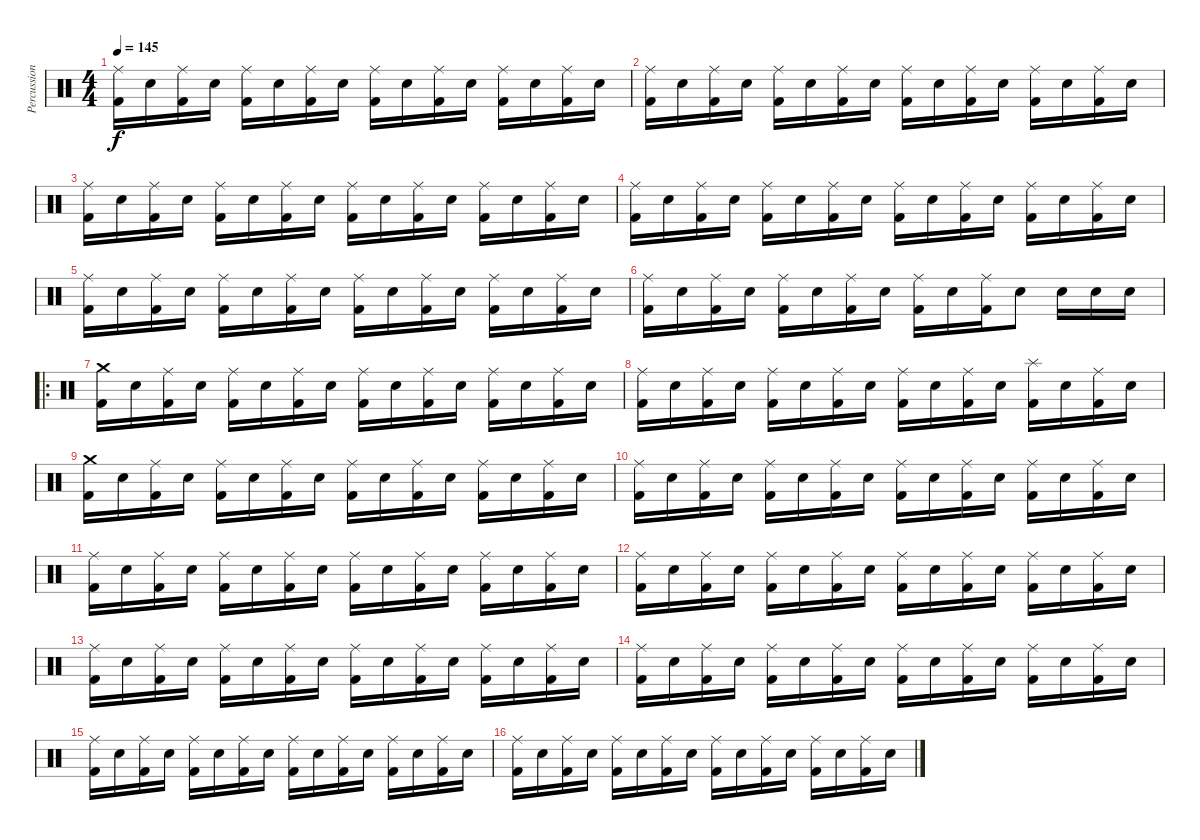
\track ("Percussions" "Percussion") {instrument percussion}
\staff {score}
\articulation defaults
\ts (4 4)
\tempo 145
\clef neutral
\ks c
("Ride (middle)" "Kick (hit) 2").16{dy f} "Snare (hit) 2".16 ("Ride (middle)" "Kick (hit) 2").16 "Snare (hit) 2".16 ("Ride (middle)" "Kick (hit) 2").16 "Snare (hit) 2".16 ("Ride (middle)" "Kick (hit) 2").16 "Snare (hit) 2".16 ("Ride (middle)" "Kick (hit) 2").16 "Snare (hit) 2".16 ("Ride (middle)" "Kick (hit) 2").16 "Snare (hit) 2".16 ("Ride (middle)" "Kick (hit) 2").16 "Snare (hit) 2".16 ("Ride (middle)" "Kick (hit) 2").16 "Snare (hit) 2".16 |
("Ride (middle)" "Kick (hit) 2").16 "Snare (hit) 2".16 ("Ride (middle)" "Kick (hit) 2").16 "Snare (hit) 2".16 ("Ride (middle)" "Kick (hit) 2").16 "Snare (hit) 2".16 ("Ride (middle)" "Kick (hit) 2").16 "Snare (hit) 2".16 ("Ride (middle)" "Kick (hit) 2").16 "Snare (hit) 2".16 ("Ride (middle)" "Kick (hit) 2").16 "Snare (hit) 2".16 ("Ride (middle)" "Kick (hit) 2").16 "Snare (hit) 2".16 ("Ride (middle)" "Kick (hit) 2").16 "Snare (hit) 2".16 |
("Ride (middle)" "Kick (hit) 2").16 "Snare (hit) 2".16 ("Ride (middle)" "Kick (hit) 2").16 "Snare (hit) 2".16 ("Ride (middle)" "Kick (hit) 2").16 "Snare (hit) 2".16 ("Ride (middle)" "Kick (hit) 2").16 "Snare (hit) 2".16 ("Ride (middle)" "Kick (hit) 2").16 "Snare (hit) 2".16 ("Ride (middle)" "Kick (hit) 2").16 "Snare (hit) 2".16 ("Ride (middle)" "Kick (hit) 2").16 "Snare (hit) 2".16 ("Ride (middle)" "Kick (hit) 2").16 "Snare (hit) 2".16 |
("Ride (middle)" "Kick (hit) 2").16 "Snare (hit) 2".16 ("Ride (middle)" "Kick (hit) 2").16 "Snare (hit) 2".16 ("Ride (middle)" "Kick (hit) 2").16 "Snare (hit) 2".16 ("Ride (middle)" "Kick (hit) 2").16 "Snare (hit) 2".16 ("Ride (middle)" "Kick (hit) 2").16 "Snare (hit) 2".16 ("Ride (middle)" "Kick (hit) 2").16 "Snare (hit) 2".16 ("Ride (middle)" "Kick (hit) 2").16 "Snare (hit) 2".16 ("Ride (middle)" "Kick (hit) 2").16 "Snare (hit) 2".16 |
("Ride (middle)" "Kick (hit) 2").16 "Snare (hit) 2".16 ("Ride (middle)" "Kick (hit) 2").16 "Snare (hit) 2".16 ("Ride (middle)" "Kick (hit) 2").16 "Snare (hit) 2".16 ("Ride (middle)" "Kick (hit) 2").16 "Snare (hit) 2".16 ("Ride (middle)" "Kick (hit) 2").16 "Snare (hit) 2".16 ("Ride (middle)" "Kick (hit) 2").16 "Snare (hit) 2".16 ("Ride (middle)" "Kick (hit) 2").16 "Snare (hit) 2".16 ("Ride (middle)" "Kick (hit) 2").16 "Snare (hit) 2".16 |
("Ride (middle)" "Kick (hit) 2").16 "Snare (hit) 2".16 ("Ride (middle)" "Kick (hit) 2").16 "Snare (hit) 2".16 ("Ride (middle)" "Kick (hit) 2").16 "Snare (hit) 2".16 ("Ride (middle)" "Kick (hit) 2").16 "Snare (hit) 2".16 ("Ride (middle)" "Kick (hit) 2").16 "Snare (hit) 2".16 ("Ride (middle)" "Kick (hit) 2").16 "Snare (hit) 2".8 "Snare (hit) 2".16 "Snare (hit) 2".16 "Snare (hit) 2".16 |
\ro
("Crash medium (hit)" "Kick (hit) 2").16 "Snare (hit) 2".16 ("Ride (middle)" "Kick (hit) 2").16 "Snare (hit) 2".16 ("Ride (middle)" "Kick (hit) 2").16 "Snare (hit) 2".16 ("Ride (middle)" "Kick (hit) 2").16 "Snare (hit) 2".16 ("Ride (middle)" "Kick (hit) 2").16 "Snare (hit) 2".16 ("Ride (middle)" "Kick (hit) 2").16 "Snare (hit) 2".16 ("Ride (middle)" "Kick (hit) 2").16 "Snare (hit) 2".16 ("Ride (middle)" "Kick (hit) 2").16 "Snare (hit) 2".16 |
("Ride (middle)" "Kick (hit) 2").16 "Snare (hit) 2".16 ("Ride (middle)" "Kick (hit) 2").16 "Snare (hit) 2".16 ("Ride (middle)" "Kick (hit) 2").16 "Snare (hit) 2".16 ("Ride (middle)" "Kick (hit) 2").16 "Snare (hit) 2".16 ("Ride (middle)" "Kick (hit) 2").16 "Snare (hit) 2".16 ("Ride (middle)" "Kick (hit) 2").16 "Snare (hit) 2".16 ("Splash (hit)" "Kick (hit) 2").16 "Snare (hit) 2".16 ("Ride (middle)" "Kick (hit) 2").16 "Snare (hit) 2".16 |
("Crash medium (hit)" "Kick (hit) 2").16 "Snare (hit) 2".16 ("Ride (middle)" "Kick (hit) 2").16 "Snare (hit) 2".16 ("Ride (middle)" "Kick (hit) 2").16 "Snare (hit) 2".16 ("Ride (middle)" "Kick (hit) 2").16 "Snare (hit) 2".16 ("Ride (middle)" "Kick (hit) 2").16 "Snare (hit) 2".16 ("Ride (middle)" "Kick (hit) 2").16 "Snare (hit) 2".16 ("Ride (middle)" "Kick (hit) 2").16 "Snare (hit) 2".16 ("Ride (middle)" "Kick (hit) 2").16 "Snare (hit) 2".16 |
("Ride (middle)" "Kick (hit) 2").16 "Snare (hit) 2".16 ("Ride (middle)" "Kick (hit) 2").16 "Snare (hit) 2".16 ("Ride (middle)" "Kick (hit) 2").16 "Snare (hit) 2".16 ("Ride (middle)" "Kick (hit) 2").16 "Snare (hit) 2".16 ("Ride (middle)" "Kick (hit) 2").16 "Snare (hit) 2".16 ("Ride (middle)" "Kick (hit) 2").16 "Snare (hit) 2".16 ("Ride (middle)" "Kick (hit) 2").16 "Snare (hit) 2".16 ("Ride (middle)" "Kick (hit) 2").16 "Snare (hit) 2".16 |
("Ride (middle)" "Kick (hit) 2").16 "Snare (hit) 2".16 ("Ride (middle)" "Kick (hit) 2").16 "Snare (hit) 2".16 ("Ride (middle)" "Kick (hit) 2").16 "Snare (hit) 2".16 ("Ride (middle)" "Kick (hit) 2").16 "Snare (hit) 2".16 ("Ride (middle)" "Kick (hit) 2").16 "Snare (hit) 2".16 ("Ride (middle)" "Kick (hit) 2").16 "Snare (hit) 2".16 ("Ride (middle)" "Kick (hit) 2").16 "Snare (hit) 2".16 ("Ride (middle)" "Kick (hit) 2").16 "Snare (hit) 2".16 |
("Ride (middle)" "Kick (hit) 2").16 "Snare (hit) 2".16 ("Ride (middle)" "Kick (hit) 2").16 "Snare (hit) 2".16 ("Ride (middle)" "Kick (hit) 2").16 "Snare (hit) 2".16 ("Ride (middle)" "Kick (hit) 2").16 "Snare (hit) 2".16 ("Ride (middle)" "Kick (hit) 2").16 "Snare (hit) 2".16 ("Ride (middle)" "Kick (hit) 2").16 "Snare (hit) 2".16 ("Ride (middle)" "Kick (hit) 2").16 "Snare (hit) 2".16 ("Ride (middle)" "Kick (hit) 2").16 "Snare (hit) 2".16 |
("Ride (middle)" "Kick (hit) 2").16 "Snare (hit) 2".16 ("Ride (middle)" "Kick (hit) 2").16 "Snare (hit) 2".16 ("Ride (middle)" "Kick (hit) 2").16 "Snare (hit) 2".16 ("Ride (middle)" "Kick (hit) 2").16 "Snare (hit) 2".16 ("Ride (middle)" "Kick (hit) 2").16 "Snare (hit) 2".16 ("Ride (middle)" "Kick (hit) 2").16 "Snare (hit) 2".16 ("Ride (middle)" "Kick (hit) 2").16 "Snare (hit) 2".16 ("Ride (middle)" "Kick (hit) 2").16 "Snare (hit) 2".16 |
("Ride (middle)" "Kick (hit) 2").16 "Snare (hit) 2".16 ("Ride (middle)" "Kick (hit) 2").16 "Snare (hit) 2".16 ("Ride (middle)" "Kick (hit) 2").16 "Snare (hit) 2".16 ("Ride (middle)" "Kick (hit) 2").16 "Snare (hit) 2".16 ("Ride (middle)" "Kick (hit) 2").16 "Snare (hit) 2".16 ("Ride (middle)" "Kick (hit) 2").16 "Snare (hit) 2".16 ("Ride (middle)" "Kick (hit) 2").16 "Snare (hit) 2".16 ("Ride (middle)" "Kick (hit) 2").16 "Snare (hit) 2".16 |
("Ride (middle)" "Kick (hit) 2").16 "Snare (hit) 2".16 ("Ride (middle)" "Kick (hit) 2").16 "Snare (hit) 2".16 ("Ride (middle)" "Kick (hit) 2").16 "Snare (hit) 2".16 ("Ride (middle)" "Kick (hit) 2").16 "Snare (hit) 2".16 ("Ride (middle)" "Kick (hit) 2").16 "Snare (hit) 2".16 ("Ride (middle)" "Kick (hit) 2").16 "Snare (hit) 2".16 ("Ride (middle)" "Kick (hit) 2").16 "Snare (hit) 2".16 ("Ride (middle)" "Kick (hit) 2").16 "Snare (hit) 2".16 |
("Ride (middle)" "Kick (hit) 2").16 "Snare (hit) 2".16 ("Ride (middle)" "Kick (hit) 2").16 "Snare (hit) 2".16 ("Ride (middle)" "Kick (hit) 2").16 "Snare (hit) 2".16 ("Ride (middle)" "Kick (hit) 2").16 "Snare (hit) 2".16 ("Ride (middle)" "Kick (hit) 2").16 "Snare (hit) 2".16 ("Ride (middle)" "Kick (hit) 2").16 "Snare (hit) 2".16 ("Ride (middle)" "Kick (hit) 2").16 "Snare (hit) 2".16 ("Ride (middle)" "Kick (hit) 2").16 "Snare (hit) 2".16
